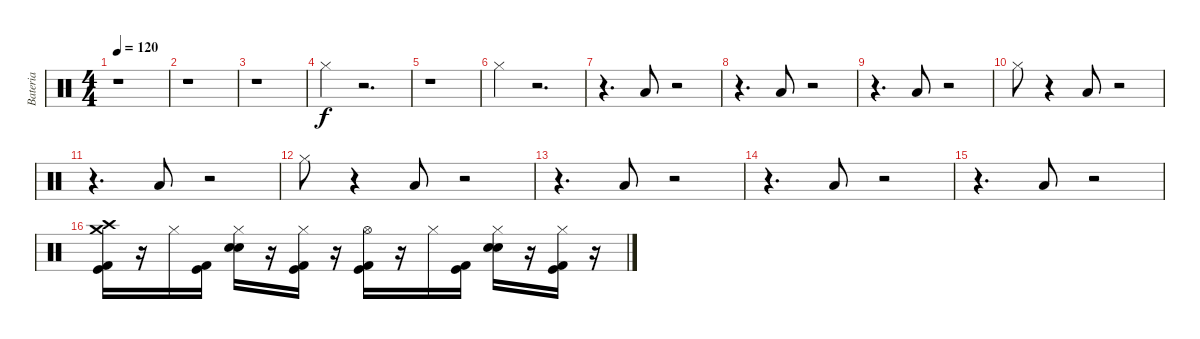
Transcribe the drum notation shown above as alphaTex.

\track ("Bateria" "Bateria") {instrument percussion}
\staff {score}
\articulation defaults
\ts (4 4)
\tempo 120
\clef neutral
\ks c
r.1{dy f} |
r.1 |
r.1 |
"Hi-Hat (closed)".4 r.2{d} |
r.1 |
"Hi-Hat (closed)".4 r.2{d} |
r.4{d} "Low Tom (hit)".8 r.2 |
r.4{d} "Low Tom (hit)".8 r.2 |
r.4{d} "Low Tom (hit)".8 r.2 |
"Hi-Hat (closed)".8 r.4 "Low Tom (hit)".8 r.2 |
r.4{d} "Low Tom (hit)".8 r.2 |
"Hi-Hat (closed)".8 r.4 "Low Tom (hit)".8 r.2 |
r.4{d} "Low Tom (hit)".8 r.2 |
r.4{d} "Low Tom (hit)".8 r.2 |
r.4{d} "Low Tom (hit)".8 r.2 |
("Crash high (hit)" "Crash medium (hit)" "Kick (hit) 2" "Kick (hit)").16 r.16 "Hi-Hat (closed)".16 ("Kick (hit) 2" "Kick (hit)").16 ("Electric Snare (hit)" "Snare (hit) 2" "Hi-Hat (closed)").16 r.16 ("Hi-Hat (closed)" "Kick (hit) 2" "Kick (hit)").16 r.16 ("Kick (hit) 2" "Kick (hit)" "Hi-Hat (open)").16 r.16 "Hi-Hat (closed)".16 ("Kick (hit) 2" "Kick (hit)").16 ("Electric Snare (hit)" "Snare (hit) 2" "Hi-Hat (closed)").16 r.16 ("Kick (hit) 2" "Kick (hit)" "Hi-Hat (closed)").16 r.16
